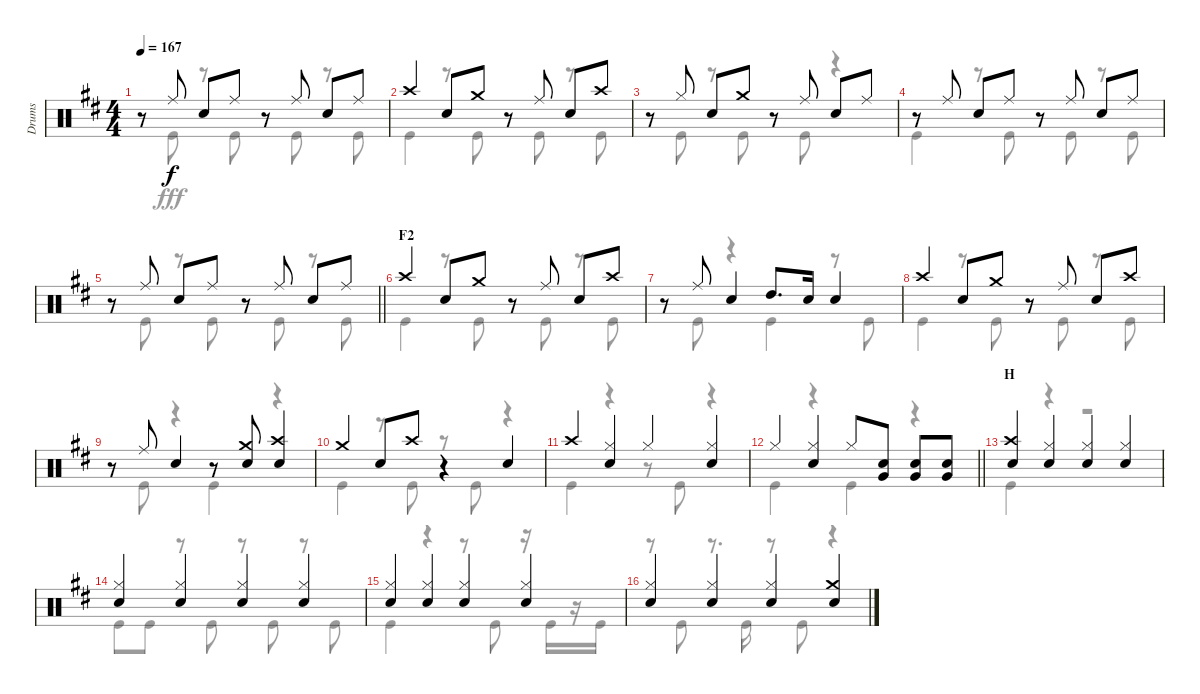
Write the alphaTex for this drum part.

\track ("Drums" "Drums") {instrument percussion}
\staff {score}
\articulation defaults
\voice
\ts (4 4)
\tempo 167
\clef neutral
\ks d
r.8{dy f} "Ride (middle)".8 "Snare (hit) 2".8 "Ride (middle)".8 r.8 "Ride (middle)".8 "Snare (hit) 2".8 "Ride (middle)".8 |
"Crash high (hit)".4 "Snare (hit) 2".8 "Crash medium (hit)".8 r.8 "Ride (middle)".8 "Snare (hit) 2".8 "Crash high (hit)".8 |
r.8 "Hi-Hat (closed)".8 "Snare (hit) 2".8 "Crash medium (hit)".8 r.8 "Ride (middle)".8 "Snare (hit) 2".8 "Ride (middle)".8 |
r.8 "Ride (middle)".8 "Snare (hit) 2".8 "Ride (middle)".8 r.8 "Ride (middle)".8 "Snare (hit) 2".8 "Ride (middle)".8 |
\barLineRight lightlight
r.8 "Ride (middle)".8 "Snare (hit) 2".8 "Ride (middle)".8 r.8 "Ride (middle)".8 "Snare (hit) 2".8 "Ride (middle)".8 |
\section ("" "F2")
"Crash high (hit)".4 "Snare (hit) 2".8 "Crash medium (hit)".8 r.8 "Ride (middle)".8 "Snare (hit) 2".8 "Crash high (hit)".8 |
r.8 "Ride (middle)".8 "Snare (hit) 2".4 "High Tom (hit)".8{d} "Snare (hit) 2".16 "Snare (hit) 2".4 |
"Crash high (hit)".4 "Snare (hit) 2".8 "Crash medium (hit)".8 r.8 "Ride (middle)".8 "Snare (hit) 2".8 "Crash high (hit)".8 |
r.8 "Ride (middle)".8 "Snare (hit) 2".4 r.8 ("Crash medium (hit)" "Snare (hit) 2").8 ("Crash high (hit)" "Snare (hit) 2").4 |
"Crash medium (hit)".4 "Snare (hit) 2".8 "Crash high (hit)".8 r.4 "Snare (hit) 2".4 |
"Crash high (hit)".4 ("Hi-Hat (closed)" "Snare (hit) 2").4 "Hi-Hat (closed)".4 ("Hi-Hat (closed)" "Snare (hit) 2").4 |
\barLineRight lightlight "Hi-Hat (closed)".4
("Hi-Hat (closed)" "Snare (hit) 2").4 "Hi-Hat (closed)".8 ("Snare (hit) 2" "Very Low Tom (hit)").8 ("Snare (hit) 2" "Very Low Tom (hit)").8 ("Snare (hit) 2" "Very Low Tom (hit)").8 |
\section ("" "H")
("Crash high (hit)" "Snare (hit) 2").4 ("Hi-Hat (closed)" "Snare (hit) 2").4 ("Hi-Hat (closed)" "Snare (hit) 2").4 ("Hi-Hat (closed)" "Snare (hit) 2").4 |
("Hi-Hat (closed)" "Snare (hit) 2").4 ("Hi-Hat (closed)" "Snare (hit) 2").4 ("Hi-Hat (closed)" "Snare (hit) 2").4 ("Hi-Hat (closed)" "Snare (hit) 2").4 |
("Hi-Hat (closed)" "Snare (hit) 2").4 ("Hi-Hat (closed)" "Snare (hit) 2").4 ("Hi-Hat (closed)" "Snare (hit) 2").4 ("Hi-Hat (closed)" "Snare (hit) 2").4 |
("Hi-Hat (closed)" "Snare (hit) 2").4 ("Hi-Hat (closed)" "Snare (hit) 2").4 ("Hi-Hat (closed)" "Snare (hit) 2").4 ("Crash medium (hit)" "Snare (hit) 2").4
\voice
\clef neutral
\ottava regular
\simile none
\ks d
r.8{dy fff} "Kick (hit)".8 r.8 "Kick (hit)".8 r.8 "Kick (hit)".8 r.8 "Kick (hit)".8 |
"Kick (hit)".4 r.8 "Kick (hit)".8 r.8 "Kick (hit)".8 r.8 "Kick (hit)".8 |
r.8 "Kick (hit)".8 r.8 "Kick (hit)".8 r.8 "Kick (hit)".8 r.4 |
"Kick (hit)".4 r.8 "Kick (hit)".8 r.8 "Kick (hit)".8 r.8 "Kick (hit)".8 |
\barLineRight lightlight
r.8 "Kick (hit)".8 r.8 "Kick (hit)".8 r.8 "Kick (hit)".8 r.8 "Kick (hit)".8 |
"Kick (hit)".4 r.8 "Kick (hit)".8 r.8 "Kick (hit)".8 r.8 "Kick (hit)".8 |
r.8 "Kick (hit)".8 r.4 "Kick (hit)".4 r.8 "Kick (hit)".8 |
"Kick (hit)".4 r.8 "Kick (hit)".8 r.8 "Kick (hit)".8 r.8 "Kick (hit)".8 |
r.8 "Kick (hit)".8 r.4 "Kick (hit)".4 r.4 |
"Kick (hit)".4 r.8 "Kick (hit)".8 r.8 "Kick (hit)".8 r.4 |
"Kick (hit)".4 r.4 r.8 "Kick (hit)".8 r.4 |
\barLineRight lightlight "Kick (hit)".4
r.4 "Kick (hit)".4 r.4 |
"Kick (hit)".4 r.4 r.2 |
"Kick (hit)".8 "Kick (hit)".8 r.8 "Kick (hit)".8 r.8 "Kick (hit)".8 r.8 "Kick (hit)".8 |
"Kick (hit)".4 r.4 r.8 "Kick (hit)".8 r.16 "Kick (hit)".16 r.16 "Kick (hit)".16 |
r.8 "Kick (hit)".8 r.8{d} "Kick (hit)".16 r.8 "Kick (hit)".8 r.4
